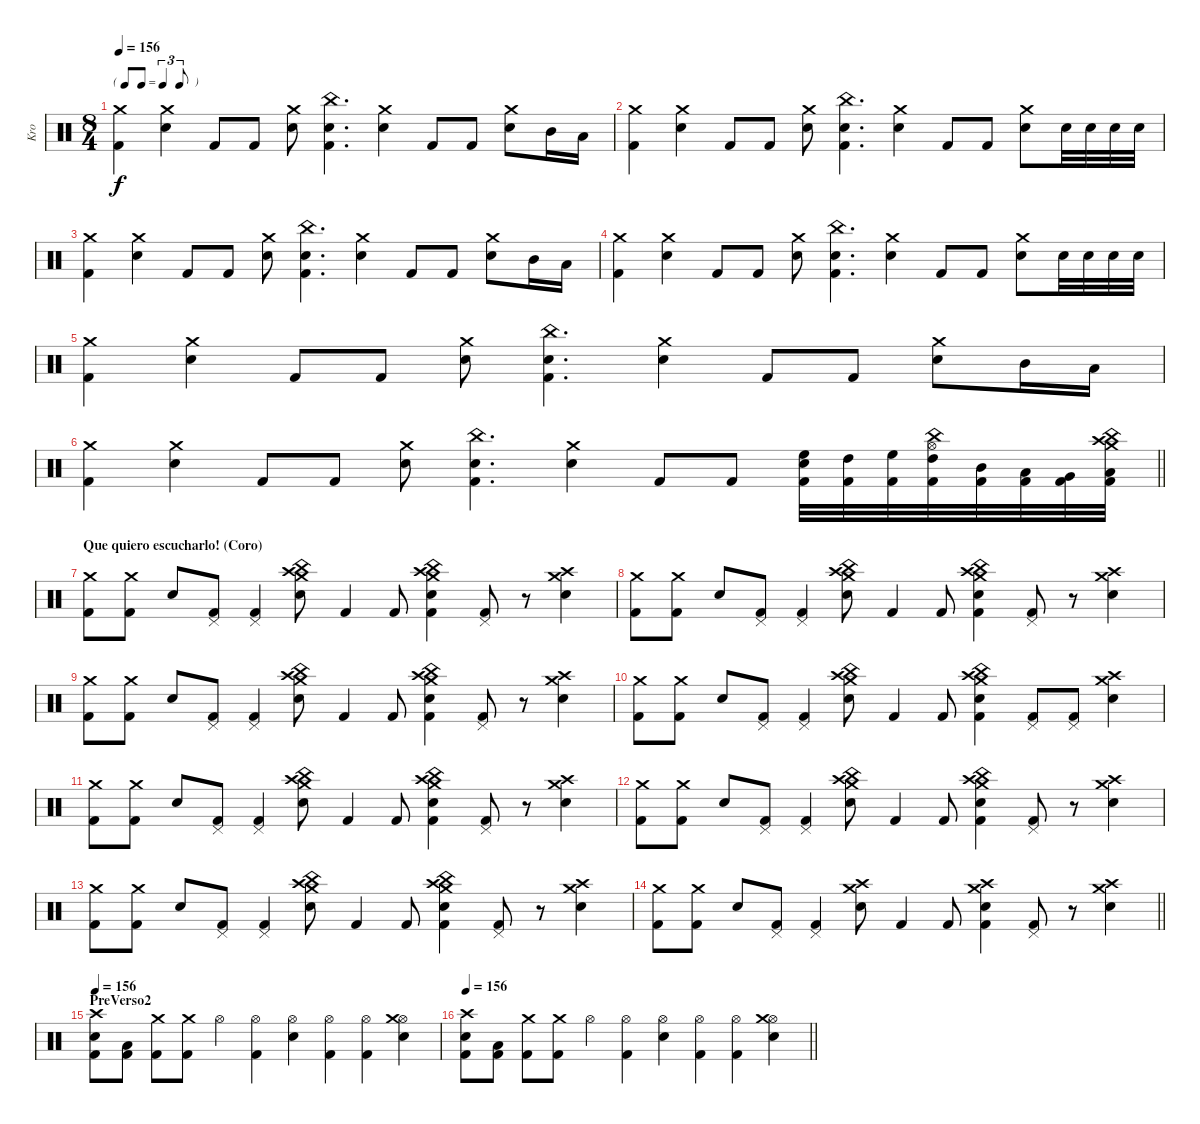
\track ("Kro" "Kro") {instrument percussion}
\staff {score}
\articulation defaults
\ts (8 4)
\tf triplet8th
\tempo 156
\clef neutral
\ks c
("Crash medium (hit)" "Kick (hit) 2").4{dy f} ("Crash medium (hit)" "Electric Snare (hit)").4 "Kick (hit) 2".8 "Kick (hit) 2".8 ("Crash medium (hit)" "Electric Snare (hit)").8 ("China (hit)" "Electric Snare (hit)" "Kick (hit) 2").4{d} ("Crash medium (hit)" "Electric Snare (hit)").4 "Kick (hit) 2".8 "Kick (hit) 2".8 ("Crash medium (hit)" "Electric Snare (hit)").8 "Mid Tom (hit)".16 "Low Tom (hit)".16 |
("Crash medium (hit)" "Kick (hit) 2").4 ("Crash medium (hit)" "Electric Snare (hit)").4 "Kick (hit) 2".8 "Kick (hit) 2".8 ("Crash medium (hit)" "Electric Snare (hit)").8 ("China (hit)" "Electric Snare (hit)" "Kick (hit) 2").4{d} ("Crash medium (hit)" "Electric Snare (hit)").4 "Kick (hit) 2".8 "Kick (hit) 2".8 ("Crash medium (hit)" "Electric Snare (hit)").8 "Electric Snare (hit)".32 "Electric Snare (hit)".32 "Electric Snare (hit)".32 "Electric Snare (hit)".32 |
("Crash medium (hit)" "Kick (hit) 2").4 ("Crash medium (hit)" "Electric Snare (hit)").4 "Kick (hit) 2".8 "Kick (hit) 2".8 ("Crash medium (hit)" "Electric Snare (hit)").8 ("China (hit)" "Electric Snare (hit)" "Kick (hit) 2").4{d} ("Crash medium (hit)" "Electric Snare (hit)").4 "Kick (hit) 2".8 "Kick (hit) 2".8 ("Crash medium (hit)" "Electric Snare (hit)").8 "Mid Tom (hit)".16 "Low Tom (hit)".16 |
("Crash medium (hit)" "Kick (hit) 2").4 ("Crash medium (hit)" "Electric Snare (hit)").4 "Kick (hit) 2".8 "Kick (hit) 2".8 ("Crash medium (hit)" "Electric Snare (hit)").8 ("China (hit)" "Electric Snare (hit)" "Kick (hit) 2").4{d} ("Crash medium (hit)" "Electric Snare (hit)").4 "Kick (hit) 2".8 "Kick (hit) 2".8 ("Crash medium (hit)" "Electric Snare (hit)").8 "Electric Snare (hit)".32 "Electric Snare (hit)".32 "Electric Snare (hit)".32 "Electric Snare (hit)".32 |
("Crash medium (hit)" "Kick (hit) 2").4 ("Crash medium (hit)" "Electric Snare (hit)").4 "Kick (hit) 2".8 "Kick (hit) 2".8 ("Crash medium (hit)" "Electric Snare (hit)").8 ("China (hit)" "Electric Snare (hit)" "Kick (hit) 2").4{d} ("Crash medium (hit)" "Electric Snare (hit)").4 "Kick (hit) 2".8 "Kick (hit) 2".8 ("Crash medium (hit)" "Electric Snare (hit)").8 "Mid Tom (hit)".16 "Low Tom (hit)".16 |
\barLineRight lightlight
("Crash medium (hit)" "Kick (hit) 2").4 ("Crash medium (hit)" "Electric Snare (hit)").4 "Kick (hit) 2".8 "Kick (hit) 2".8 ("Crash medium (hit)" "Electric Snare (hit)").8 ("China (hit)" "Electric Snare (hit)" "Kick (hit) 2").4{d} ("Crash medium (hit)" "Electric Snare (hit)").4 "Kick (hit) 2".8 "Kick (hit) 2".8 ("High Floor Tom (hit)" "Electric Snare (hit)" "Kick (hit) 2").32 ("High Tom (hit)" "Kick (hit) 2").32 ("High Floor Tom (hit)" "Kick (hit) 2").32 ("China (hit)" "High Tom (hit)" "Hi-Hat (open)" "Kick (hit) 2").32 ("Mid Tom (hit)" "Kick (hit) 2").32 ("Low Tom (hit)" "Kick (hit) 2").32 ("Very Low Tom (hit)" "Kick (hit) 2").32 ("Crash medium (hit)" "China (hit)" "Low Floor Tom (hit)" "Kick (hit) 2" "Crash high (hit)").32 |
\section ("" "Que quiero escucharlo! (Coro)")
("Crash medium (hit)" "Kick (hit) 2").8 ("Crash medium (hit)" "Kick (hit) 2").8 "Electric Snare (hit)".8 ("Pedal Hi-Hat (hit)" "Kick (hit) 2").8 ("Pedal Hi-Hat (hit)" "Kick (hit) 2").4 ("Crash medium (hit)" "China (hit)" "Electric Snare (hit)" "Crash high (hit)").8 "Kick (hit) 2".4 "Kick (hit) 2".8 ("China (hit)" "Crash medium (hit)" "Electric Snare (hit)" "Kick (hit) 2" "Crash high (hit)").4 ("Pedal Hi-Hat (hit)" "Kick (hit) 2").8 r.8 ("Crash medium (hit)" "Crash high (hit)" "Electric Snare (hit)").4 |
("Crash medium (hit)" "Kick (hit) 2").8 ("Crash medium (hit)" "Kick (hit) 2").8 "Electric Snare (hit)".8 ("Pedal Hi-Hat (hit)" "Kick (hit) 2").8 ("Pedal Hi-Hat (hit)" "Kick (hit) 2").4 ("Crash medium (hit)" "China (hit)" "Electric Snare (hit)" "Crash high (hit)").8 "Kick (hit) 2".4 "Kick (hit) 2".8 ("China (hit)" "Crash medium (hit)" "Electric Snare (hit)" "Kick (hit) 2" "Crash high (hit)").4 ("Pedal Hi-Hat (hit)" "Kick (hit) 2").8 r.8 ("Crash medium (hit)" "Crash high (hit)" "Electric Snare (hit)").4 |
("Crash medium (hit)" "Kick (hit) 2").8 ("Crash medium (hit)" "Kick (hit) 2").8 "Electric Snare (hit)".8 ("Pedal Hi-Hat (hit)" "Kick (hit) 2").8 ("Pedal Hi-Hat (hit)" "Kick (hit) 2").4 ("Crash medium (hit)" "China (hit)" "Electric Snare (hit)" "Crash high (hit)").8 "Kick (hit) 2".4 "Kick (hit) 2".8 ("China (hit)" "Crash medium (hit)" "Electric Snare (hit)" "Kick (hit) 2" "Crash high (hit)").4 ("Pedal Hi-Hat (hit)" "Kick (hit) 2").8 r.8 ("Crash medium (hit)" "Crash high (hit)" "Electric Snare (hit)").4 |
("Crash medium (hit)" "Kick (hit) 2").8 ("Crash medium (hit)" "Kick (hit) 2").8 "Electric Snare (hit)".8 ("Pedal Hi-Hat (hit)" "Kick (hit) 2").8 ("Pedal Hi-Hat (hit)" "Kick (hit) 2").4 ("Crash medium (hit)" "China (hit)" "Electric Snare (hit)" "Crash high (hit)").8 "Kick (hit) 2".4 "Kick (hit) 2".8 ("China (hit)" "Crash medium (hit)" "Electric Snare (hit)" "Kick (hit) 2" "Crash high (hit)").4 ("Pedal Hi-Hat (hit)" "Kick (hit) 2").8 ("Pedal Hi-Hat (hit)" "Kick (hit) 2").8 ("Crash medium (hit)" "Crash high (hit)" "Electric Snare (hit)").4 |
("Crash medium (hit)" "Kick (hit) 2").8 ("Crash medium (hit)" "Kick (hit) 2").8 "Electric Snare (hit)".8 ("Pedal Hi-Hat (hit)" "Kick (hit) 2").8 ("Pedal Hi-Hat (hit)" "Kick (hit) 2").4 ("Crash medium (hit)" "China (hit)" "Electric Snare (hit)" "Crash high (hit)").8 "Kick (hit) 2".4 "Kick (hit) 2".8 ("China (hit)" "Crash medium (hit)" "Electric Snare (hit)" "Kick (hit) 2" "Crash high (hit)").4 ("Pedal Hi-Hat (hit)" "Kick (hit) 2").8 r.8 ("Crash medium (hit)" "Crash high (hit)" "Electric Snare (hit)").4 |
("Crash medium (hit)" "Kick (hit) 2").8 ("Crash medium (hit)" "Kick (hit) 2").8 "Electric Snare (hit)".8 ("Pedal Hi-Hat (hit)" "Kick (hit) 2").8 ("Pedal Hi-Hat (hit)" "Kick (hit) 2").4 ("Crash medium (hit)" "China (hit)" "Electric Snare (hit)" "Crash high (hit)").8 "Kick (hit) 2".4 "Kick (hit) 2".8 ("China (hit)" "Crash medium (hit)" "Electric Snare (hit)" "Kick (hit) 2" "Crash high (hit)").4 ("Pedal Hi-Hat (hit)" "Kick (hit) 2").8 r.8 ("Crash medium (hit)" "Crash high (hit)" "Electric Snare (hit)").4 |
("Crash medium (hit)" "Kick (hit) 2").8 ("Crash medium (hit)" "Kick (hit) 2").8 "Electric Snare (hit)".8 ("Pedal Hi-Hat (hit)" "Kick (hit) 2").8 ("Pedal Hi-Hat (hit)" "Kick (hit) 2").4 ("Crash medium (hit)" "China (hit)" "Electric Snare (hit)" "Crash high (hit)").8 "Kick (hit) 2".4 "Kick (hit) 2".8 ("China (hit)" "Crash medium (hit)" "Electric Snare (hit)" "Kick (hit) 2" "Crash high (hit)").4 ("Pedal Hi-Hat (hit)" "Kick (hit) 2").8 r.8 ("Crash medium (hit)" "Crash high (hit)" "Electric Snare (hit)").4 |
\barLineRight lightlight
("Crash medium (hit)" "Kick (hit) 2").8 ("Crash medium (hit)" "Kick (hit) 2").8 "Electric Snare (hit)".8 ("Pedal Hi-Hat (hit)" "Kick (hit) 2").8 ("Pedal Hi-Hat (hit)" "Kick (hit) 2").4 ("Crash medium (hit)" "Electric Snare (hit)" "Crash high (hit)").8 "Kick (hit) 2".4 "Kick (hit) 2".8 ("Crash medium (hit)" "Electric Snare (hit)" "Kick (hit) 2" "Crash high (hit)").4 ("Pedal Hi-Hat (hit)" "Kick (hit) 2").8 r.8 ("Crash medium (hit)" "Crash high (hit)" "Electric Snare (hit)").4 |
\section ("" "PreVerso2")
\tempo 156
("Crash high (hit)" "Kick (hit) 2" "Electric Snare (hit)").8 ("Low Tom (hit)" "Kick (hit) 2").8 ("Crash medium (hit)" "Kick (hit) 2").8 ("Crash medium (hit)" "Kick (hit) 2").8 "Hi-Hat (open)".4 ("Hi-Hat (open)" "Kick (hit) 2").4 ("Hi-Hat (open)" "Electric Snare (hit)").4 ("Hi-Hat (open)" "Kick (hit) 2").4 ("Hi-Hat (open)" "Kick (hit) 2").4 ("Hi-Hat (open)" "Crash medium (hit)" "Electric Snare (hit)").4 |
\tempo 156
\barLineRight lightlight
("Crash high (hit)" "Kick (hit) 2" "Electric Snare (hit)").8 ("Low Tom (hit)" "Kick (hit) 2").8 ("Crash medium (hit)" "Kick (hit) 2").8 ("Crash medium (hit)" "Kick (hit) 2").8 "Hi-Hat (open)".4 ("Hi-Hat (open)" "Kick (hit) 2").4 ("Hi-Hat (open)" "Electric Snare (hit)").4 ("Hi-Hat (open)" "Kick (hit) 2").4 ("Hi-Hat (open)" "Kick (hit) 2").4 ("Hi-Hat (open)" "Crash medium (hit)" "Electric Snare (hit)").4
